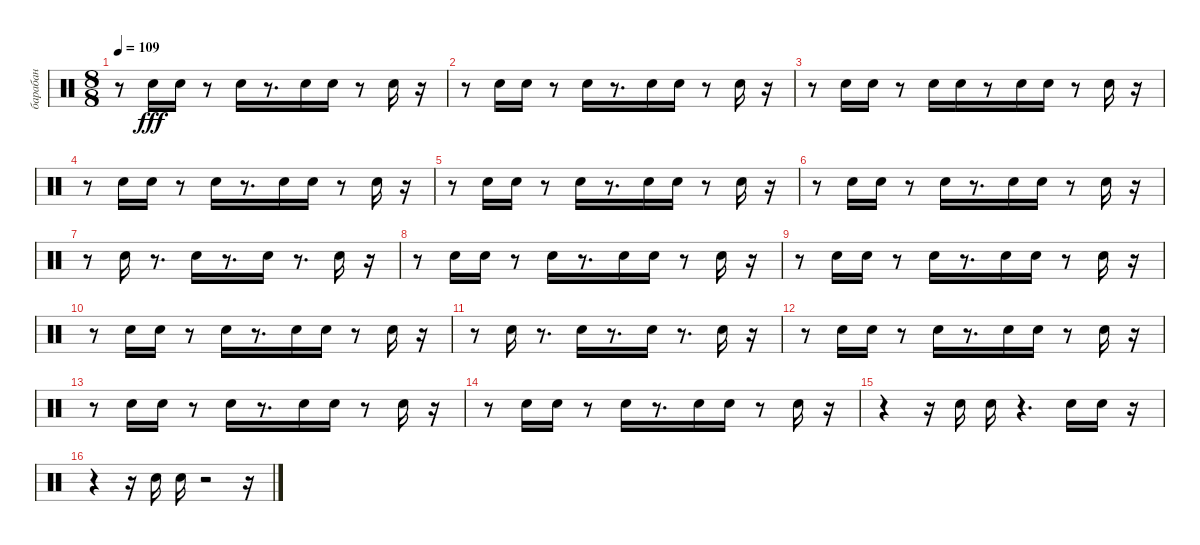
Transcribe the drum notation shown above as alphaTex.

\track ("барабан" "барабан") {instrument percussion}
\staff {score}
\articulation defaults
\ts (8 8)
\tempo 109
\clef neutral
\ks c
r.8{dy fff} "Electric Snare (hit)".16 "Electric Snare (hit)".16 r.8 "Electric Snare (hit)".16 r.8{d} "Electric Snare (hit)".16 "Electric Snare (hit)".16 r.8 "Electric Snare (hit)".16 r.16 |
r.8 "Electric Snare (hit)".16 "Electric Snare (hit)".16 r.8 "Electric Snare (hit)".16 r.8{d} "Electric Snare (hit)".16 "Electric Snare (hit)".16 r.8 "Electric Snare (hit)".16 r.16 |
r.8 "Electric Snare (hit)".16 "Electric Snare (hit)".16 r.8 "Electric Snare (hit)".16 "Electric Snare (hit)".16 r.8 "Electric Snare (hit)".16 "Electric Snare (hit)".16 r.8 "Electric Snare (hit)".16 r.16 |
r.8 "Electric Snare (hit)".16 "Electric Snare (hit)".16 r.8 "Electric Snare (hit)".16 r.8{d} "Electric Snare (hit)".16 "Electric Snare (hit)".16 r.8 "Electric Snare (hit)".16 r.16 |
r.8 "Electric Snare (hit)".16 "Electric Snare (hit)".16 r.8 "Electric Snare (hit)".16 r.8{d} "Electric Snare (hit)".16 "Electric Snare (hit)".16 r.8 "Electric Snare (hit)".16 r.16 |
r.8 "Electric Snare (hit)".16 "Electric Snare (hit)".16 r.8 "Electric Snare (hit)".16 r.8{d} "Electric Snare (hit)".16 "Electric Snare (hit)".16 r.8 "Electric Snare (hit)".16 r.16 |
r.8 "Electric Snare (hit)".16 r.8{d} "Electric Snare (hit)".16 r.8{d} "Electric Snare (hit)".16 r.8{d} "Electric Snare (hit)".16 r.16 |
r.8 "Electric Snare (hit)".16 "Electric Snare (hit)".16 r.8 "Electric Snare (hit)".16 r.8{d} "Electric Snare (hit)".16 "Electric Snare (hit)".16 r.8 "Electric Snare (hit)".16 r.16 |
r.8 "Electric Snare (hit)".16 "Electric Snare (hit)".16 r.8 "Electric Snare (hit)".16 r.8{d} "Electric Snare (hit)".16 "Electric Snare (hit)".16 r.8 "Electric Snare (hit)".16 r.16 |
r.8 "Electric Snare (hit)".16 "Electric Snare (hit)".16 r.8 "Electric Snare (hit)".16 r.8{d} "Electric Snare (hit)".16 "Electric Snare (hit)".16 r.8 "Electric Snare (hit)".16 r.16 |
r.8 "Electric Snare (hit)".16 r.8{d} "Electric Snare (hit)".16 r.8{d} "Electric Snare (hit)".16 r.8{d} "Electric Snare (hit)".16 r.16 |
r.8 "Electric Snare (hit)".16 "Electric Snare (hit)".16 r.8 "Electric Snare (hit)".16 r.8{d} "Electric Snare (hit)".16 "Electric Snare (hit)".16 r.8 "Electric Snare (hit)".16 r.16 |
r.8 "Electric Snare (hit)".16 "Electric Snare (hit)".16 r.8 "Electric Snare (hit)".16 r.8{d} "Electric Snare (hit)".16 "Electric Snare (hit)".16 r.8 "Electric Snare (hit)".16 r.16 |
r.8 "Electric Snare (hit)".16 "Electric Snare (hit)".16 r.8 "Electric Snare (hit)".16 r.8{d} "Electric Snare (hit)".16 "Electric Snare (hit)".16 r.8 "Electric Snare (hit)".16 r.16 |
r.4 r.16 "Electric Snare (hit)".16 "Electric Snare (hit)".16 r.4{d} "Electric Snare (hit)".16 "Electric Snare (hit)".16 r.16 |
r.4 r.16 "Electric Snare (hit)".16 "Electric Snare (hit)".16 r.2 r.16
